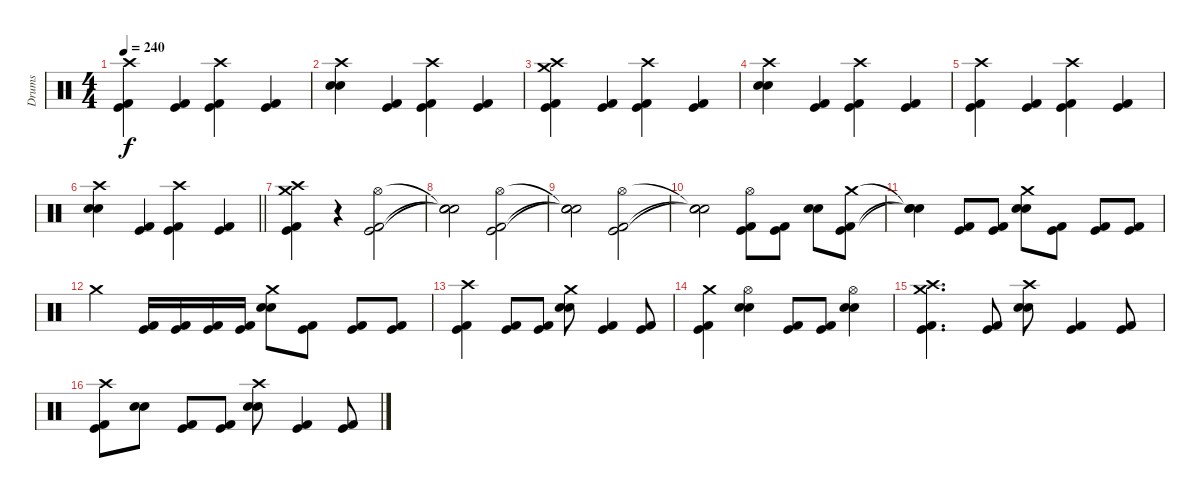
\track ("Drums" "Drums") {instrument percussion bank 10}
\staff {score}
\articulation defaults
\ts (4 4)
\tempo 240
\clef neutral
\ks c
("Crash high (hit)" "Kick (hit) 2" "Kick (hit)").4{dy f} ("Kick (hit) 2" "Kick (hit)").4 ("Crash high (hit)" "Kick (hit) 2" "Kick (hit)").4 ("Kick (hit) 2" "Kick (hit)").4 |
("Crash high (hit)" "Electric Snare (hit)" "Electric Snare (hit)").4 ("Kick (hit) 2" "Kick (hit)").4 ("Crash high (hit)" "Kick (hit) 2" "Kick (hit)").4 ("Kick (hit) 2" "Kick (hit)").4 |
("Crash high (hit)" "Crash medium (hit)" "Kick (hit) 2" "Kick (hit)").4 ("Kick (hit) 2" "Kick (hit)").4 ("Crash high (hit)" "Kick (hit) 2" "Kick (hit)").4 ("Kick (hit) 2" "Kick (hit)").4 |
("Crash high (hit)" "Electric Snare (hit)" "Electric Snare (hit)").4 ("Kick (hit) 2" "Kick (hit)").4 ("Crash high (hit)" "Kick (hit) 2" "Kick (hit)").4 ("Kick (hit) 2" "Kick (hit)").4 |
("Crash high (hit)" "Kick (hit) 2" "Kick (hit)").4 ("Kick (hit) 2" "Kick (hit)").4 ("Crash high (hit)" "Kick (hit) 2" "Kick (hit)").4 ("Kick (hit) 2" "Kick (hit)").4 |
\barLineRight lightlight
("Crash high (hit)" "Electric Snare (hit)" "Electric Snare (hit)").4 ("Kick (hit) 2" "Kick (hit)").4 ("Crash high (hit)" "Kick (hit) 2" "Kick (hit)").4 ("Kick (hit) 2" "Kick (hit)").4 |
("Crash high (hit)" "Crash medium (hit)" "Kick (hit) 2" "Kick (hit)").4 r.4 ("Hi-Hat (open)" "Kick (hit) 2" "Kick (hit)").2 |
("Snare (hit)"{t} "Snare (hit)"{t} "Snare (hit)"{t}).2 ("Hi-Hat (open)" "Kick (hit) 2" "Kick (hit)").2 |
("Snare (hit)"{t} "Snare (hit)"{t} "Snare (hit)"{t}).2 ("Hi-Hat (open)" "Kick (hit) 2" "Kick (hit)").2 |
("Snare (hit)"{t} "Snare (hit)"{t} "Snare (hit)"{t}).2 ("Hi-Hat (open)" "Kick (hit) 2" "Kick (hit)").8 ("Kick (hit) 2" "Kick (hit)").8 ("Electric Snare (hit)" "Electric Snare (hit)").8 ("Crash medium (hit)" "Kick (hit) 2" "Kick (hit)").8 |
("Snare (hit)"{t} "Snare (hit)"{t} "Snare (hit)"{t}).4 ("Kick (hit) 2" "Kick (hit)").8 ("Kick (hit) 2" "Kick (hit)").8 ("Crash medium (hit)" "Electric Snare (hit)" "Electric Snare (hit)").8 ("Kick (hit) 2" "Kick (hit)").8 ("Kick (hit) 2" "Kick (hit)").8 ("Kick (hit) 2" "Kick (hit)").8 |
"Crash medium (hit)".4 ("Kick (hit) 2" "Kick (hit)").16 ("Kick (hit) 2" "Kick (hit)").16 ("Kick (hit) 2" "Kick (hit)").16 ("Kick (hit) 2" "Kick (hit)").16 ("Crash medium (hit)" "Electric Snare (hit)" "Electric Snare (hit)").8 ("Kick (hit) 2" "Kick (hit)").8 ("Kick (hit) 2" "Kick (hit)").8 ("Kick (hit) 2" "Kick (hit)").8 |
("Crash high (hit)" "Kick (hit) 2" "Kick (hit)").4 ("Kick (hit) 2" "Kick (hit)").8 ("Kick (hit) 2" "Kick (hit)").8 ("Crash medium (hit)" "Electric Snare (hit)" "Electric Snare (hit)").8 ("Kick (hit) 2" "Kick (hit)").4 ("Kick (hit) 2" "Kick (hit)").8 |
("Crash medium (hit)" "Kick (hit) 2" "Kick (hit)").4 ("Hi-Hat (open)" "Electric Snare (hit)" "Electric Snare (hit)").4 ("Kick (hit) 2" "Kick (hit)").8 ("Kick (hit) 2" "Kick (hit)").8 ("Hi-Hat (open)" "Electric Snare (hit)" "Electric Snare (hit)").4 |
("Crash high (hit)" "Crash medium (hit)" "Kick (hit) 2" "Kick (hit)").4{d} ("Kick (hit) 2" "Kick (hit)").8 ("Crash high (hit)" "Electric Snare (hit)" "Electric Snare (hit)").8 ("Kick (hit) 2" "Kick (hit)").4 ("Kick (hit) 2" "Kick (hit)").8 |
("Crash high (hit)" "Kick (hit) 2" "Kick (hit)").8 ("Electric Snare (hit)" "Electric Snare (hit)").8 ("Kick (hit) 2" "Kick (hit)").8 ("Kick (hit) 2" "Kick (hit)").8 ("Crash high (hit)" "Electric Snare (hit)" "Electric Snare (hit)").8 ("Kick (hit) 2" "Kick (hit)").4 ("Kick (hit) 2" "Kick (hit)").8
